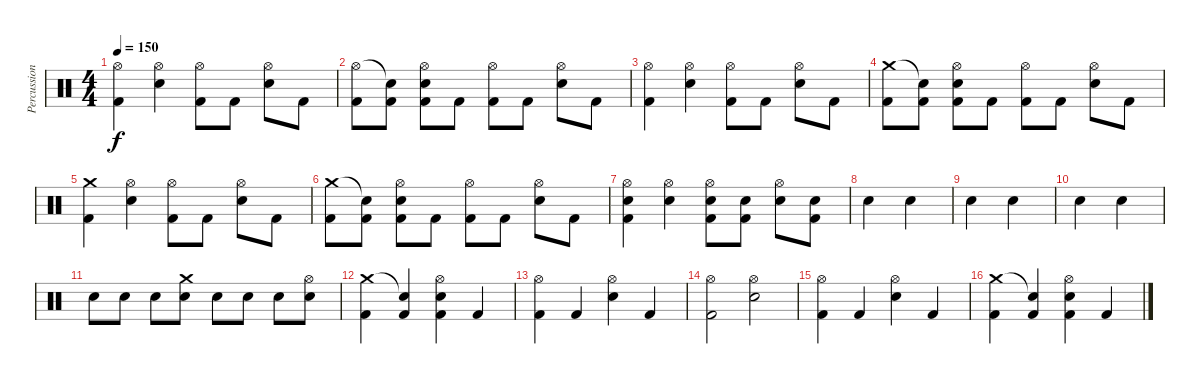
\track ("Percussion" "Percussion") {instrument percussion}
\staff {score}
\articulation defaults
\ts (4 4)
\tempo 150
\clef neutral
\ks c
("Hi-Hat (open)" "Kick (hit) 2").4{dy f} ("Hi-Hat (open)" "Electric Snare (hit)").4 ("Hi-Hat (open)" "Kick (hit) 2").8 "Kick (hit) 2".8 ("Hi-Hat (open)" "Electric Snare (hit)").8 "Kick (hit) 2".8 |
("Hi-Hat (open)" "Kick (hit) 2").8 ("Snare (hit)"{t} "Kick (hit) 2").8 ("Hi-Hat (open)" "Electric Snare (hit)" "Kick (hit) 2").8 "Kick (hit) 2".8 ("Hi-Hat (open)" "Kick (hit) 2").8 "Kick (hit) 2".8 ("Hi-Hat (open)" "Electric Snare (hit)").8 "Kick (hit) 2".8 |
("Hi-Hat (open)" "Kick (hit) 2").4 ("Hi-Hat (open)" "Electric Snare (hit)").4 ("Hi-Hat (open)" "Kick (hit) 2").8 "Kick (hit) 2".8 ("Hi-Hat (open)" "Electric Snare (hit)").8 "Kick (hit) 2".8 |
("Crash medium (hit)" "Kick (hit) 2").8 ("Snare (hit)"{t} "Kick (hit) 2").8 ("Hi-Hat (open)" "Electric Snare (hit)" "Kick (hit) 2").8 "Kick (hit) 2".8 ("Hi-Hat (open)" "Kick (hit) 2").8 "Kick (hit) 2".8 ("Hi-Hat (open)" "Electric Snare (hit)").8 "Kick (hit) 2".8 |
("Crash medium (hit)" "Kick (hit) 2").4 ("Hi-Hat (open)" "Electric Snare (hit)").4 ("Hi-Hat (open)" "Kick (hit) 2").8 "Kick (hit) 2".8 ("Hi-Hat (open)" "Electric Snare (hit)").8 "Kick (hit) 2".8 |
("Crash medium (hit)" "Kick (hit) 2").8 ("Snare (hit)"{t} "Kick (hit) 2").8 ("Hi-Hat (open)" "Electric Snare (hit)" "Kick (hit) 2").8 "Kick (hit) 2".8 ("Hi-Hat (open)" "Kick (hit) 2").8 "Kick (hit) 2".8 ("Hi-Hat (open)" "Electric Snare (hit)").8 "Kick (hit) 2".8 |
("Hi-Hat (open)" "Electric Snare (hit)" "Kick (hit) 2").4 ("Hi-Hat (open)" "Electric Snare (hit)").4 ("Hi-Hat (open)" "Electric Snare (hit)" "Kick (hit) 2").8 ("Electric Snare (hit)" "Kick (hit) 2").8 ("Hi-Hat (open)" "Electric Snare (hit)").8 ("Electric Snare (hit)" "Kick (hit) 2").8 |
"Electric Snare (hit)".4 "Electric Snare (hit)".4 |
"Electric Snare (hit)".4 "Electric Snare (hit)".4 |
"Electric Snare (hit)".4 "Electric Snare (hit)".4 |
"Electric Snare (hit)".8 "Electric Snare (hit)".8 "Electric Snare (hit)".8 ("Crash medium (hit)" "Electric Snare (hit)").8 "Electric Snare (hit)".8 "Electric Snare (hit)".8 "Electric Snare (hit)".8 ("Hi-Hat (open)" "Electric Snare (hit)").8 |
("Crash medium (hit)" "Kick (hit) 2").4 ("Snare (hit)"{t} "Kick (hit) 2").4 ("Hi-Hat (open)" "Electric Snare (hit)" "Kick (hit) 2").4 "Kick (hit) 2".4 |
("Hi-Hat (open)" "Kick (hit) 2").4 "Kick (hit) 2".4 ("Hi-Hat (open)" "Electric Snare (hit)").4 "Kick (hit) 2".4 |
("Hi-Hat (open)" "Kick (hit) 2").2 ("Hi-Hat (open)" "Electric Snare (hit)").2 |
("Hi-Hat (open)" "Kick (hit) 2").4 "Kick (hit) 2".4 ("Hi-Hat (open)" "Electric Snare (hit)").4 "Kick (hit) 2".4 |
("Crash medium (hit)" "Kick (hit) 2").4 ("Snare (hit)"{t} "Kick (hit) 2").4 ("Hi-Hat (open)" "Electric Snare (hit)" "Kick (hit) 2").4 "Kick (hit) 2".4
